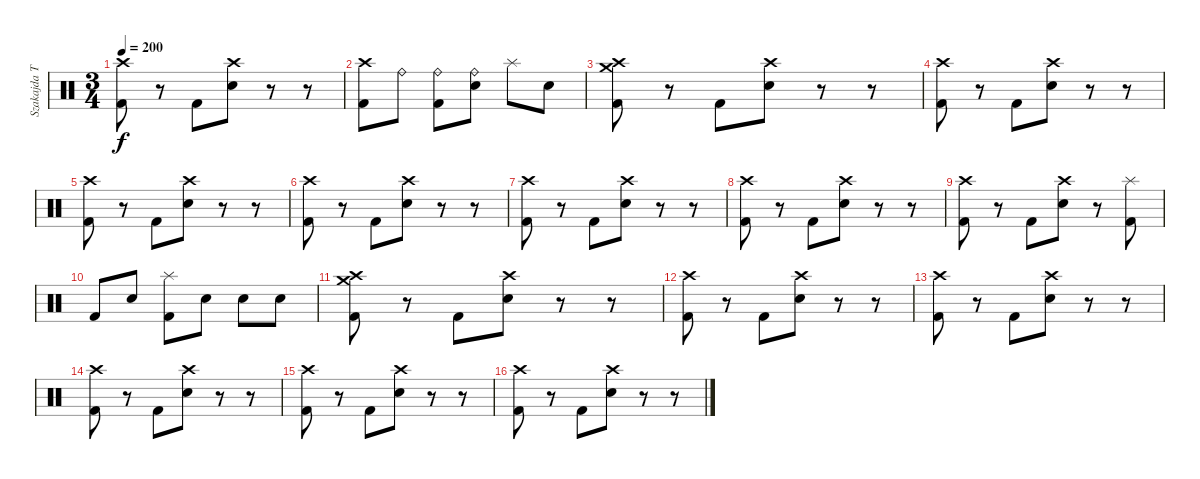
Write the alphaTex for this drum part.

\track ("Szakajda Tibi" "Szakajda T") {instrument percussion}
\staff {score}
\articulation defaults
\ts (3 4)
\tempo 200
\clef neutral
\ks c
("Crash high (hit)" "Kick (hit) 2").8{dy f} r.8 "Kick (hit) 2".8 ("Crash high (hit)" "Electric Snare (hit)").8 r.8 r.8 |
("Crash high (hit)" "Kick (hit) 2").8 "Ride (bell)".8 ("Ride (bell)" "Kick (hit) 2").8 ("Ride (bell)" "Electric Snare (hit)").8 "Splash (hit)".8 "Electric Snare (hit)".8 |
("Crash high (hit)" "Crash medium (hit)" "Kick (hit) 2").8 r.8 "Kick (hit) 2".8 ("Crash high (hit)" "Electric Snare (hit)").8 r.8 r.8 |
("Crash high (hit)" "Kick (hit) 2").8 r.8 "Kick (hit) 2".8 ("Crash high (hit)" "Electric Snare (hit)").8 r.8 r.8 |
("Crash high (hit)" "Kick (hit) 2").8 r.8 "Kick (hit) 2".8 ("Crash high (hit)" "Electric Snare (hit)").8 r.8 r.8 |
("Crash high (hit)" "Kick (hit) 2").8 r.8 "Kick (hit) 2".8 ("Crash high (hit)" "Electric Snare (hit)").8 r.8 r.8 |
("Crash high (hit)" "Kick (hit) 2").8 r.8 "Kick (hit) 2".8 ("Crash high (hit)" "Electric Snare (hit)").8 r.8 r.8 |
("Crash high (hit)" "Kick (hit) 2").8 r.8 "Kick (hit) 2".8 ("Crash high (hit)" "Electric Snare (hit)").8 r.8 r.8 |
("Crash high (hit)" "Kick (hit) 2").8 r.8 "Kick (hit) 2".8 ("Crash high (hit)" "Electric Snare (hit)").8 r.8 ("Splash (hit)" "Kick (hit) 2").8 |
"Kick (hit) 2".8 "Electric Snare (hit)".8 ("Splash (hit)" "Kick (hit) 2").8 "Electric Snare (hit)".8 "Electric Snare (hit)".8 "Electric Snare (hit)".8 |
("Crash high (hit)" "Crash medium (hit)" "Kick (hit) 2").8 r.8 "Kick (hit) 2".8 ("Crash high (hit)" "Electric Snare (hit)").8 r.8 r.8 |
("Crash high (hit)" "Kick (hit) 2").8 r.8 "Kick (hit) 2".8 ("Crash high (hit)" "Electric Snare (hit)").8 r.8 r.8 |
("Crash high (hit)" "Kick (hit) 2").8 r.8 "Kick (hit) 2".8 ("Crash high (hit)" "Electric Snare (hit)").8 r.8 r.8 |
("Crash high (hit)" "Kick (hit) 2").8 r.8 "Kick (hit) 2".8 ("Crash high (hit)" "Electric Snare (hit)").8 r.8 r.8 |
("Crash high (hit)" "Kick (hit) 2").8 r.8 "Kick (hit) 2".8 ("Crash high (hit)" "Electric Snare (hit)").8 r.8 r.8 |
("Crash high (hit)" "Kick (hit) 2").8 r.8 "Kick (hit) 2".8 ("Crash high (hit)" "Electric Snare (hit)").8 r.8 r.8
